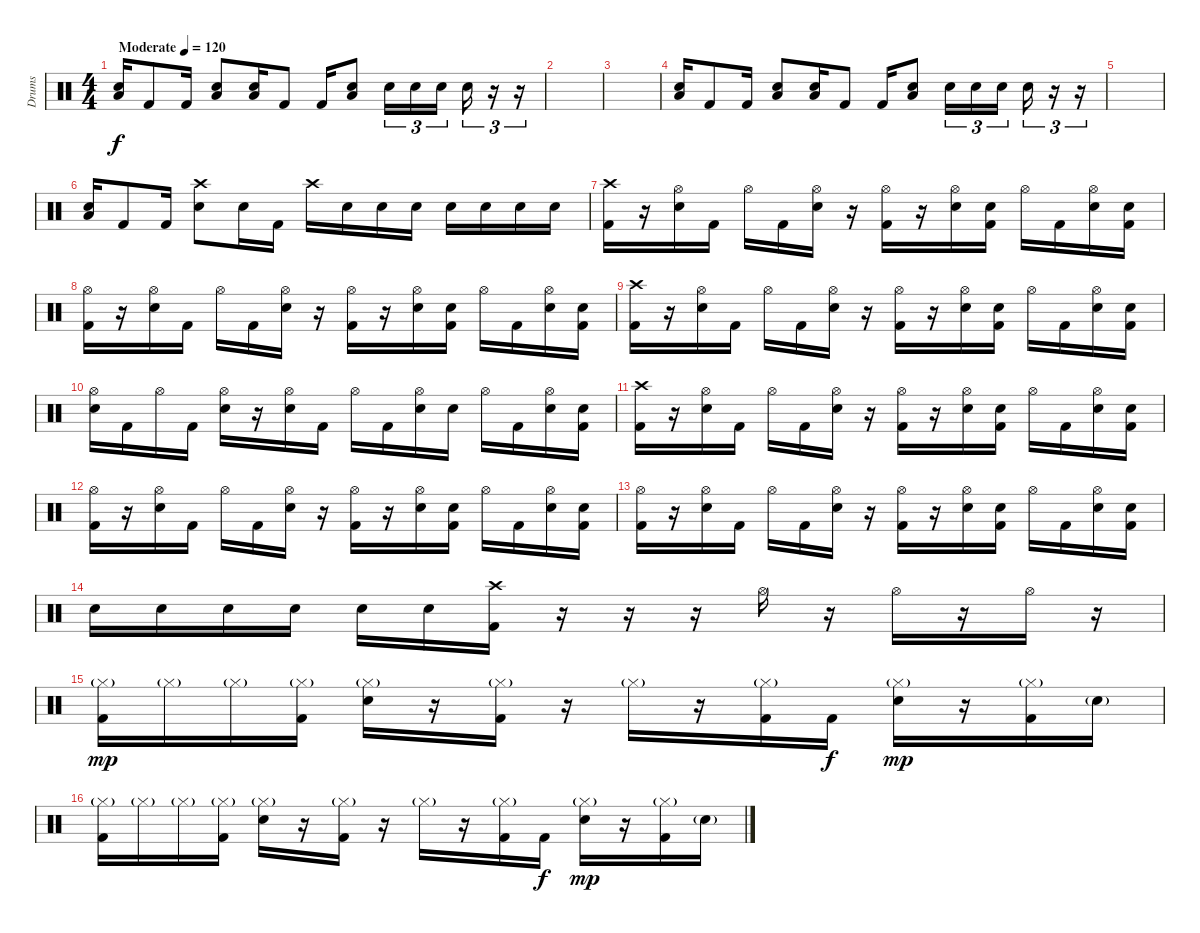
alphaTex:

\track ("Drums" "Drums") {instrument percussion}
\staff {score}
\articulation defaults
\ts (4 4)
\tempo (120 "Moderate")
\clef neutral
\ks c
("Electric Snare (hit)" "Low Tom (hit)").16{dy f} "Kick (hit) 2".8 "Kick (hit) 2".16 ("Low Floor Tom (hit)" "Electric Snare (hit)").8 ("Low Floor Tom (hit)" "Electric Snare (hit)").16 "Kick (hit) 2".8 "Kick (hit) 2".16 ("Low Floor Tom (hit)" "Electric Snare (hit)").8 "Electric Snare (hit)".16{tu (3 2)} "Electric Snare (hit)".16{tu (3 2)} "Electric Snare (hit)".16{tu (3 2) beam splitsecondary} "Electric Snare (hit)".16{tu (3 2)} r.16{tu (3 2)} r.16{tu (3 2)} |
|
|
("Electric Snare (hit)" "Low Tom (hit)").16 "Kick (hit) 2".8 "Kick (hit) 2".16 ("Low Floor Tom (hit)" "Electric Snare (hit)").8 ("Low Floor Tom (hit)" "Electric Snare (hit)").16 "Kick (hit) 2".8 "Kick (hit) 2".16 ("Low Floor Tom (hit)" "Electric Snare (hit)").8 "Electric Snare (hit)".16{tu (3 2)} "Electric Snare (hit)".16{tu (3 2)} "Electric Snare (hit)".16{tu (3 2) beam splitsecondary} "Electric Snare (hit)".16{tu (3 2)} r.16{tu (3 2)} r.16{tu (3 2)} |
|
("Electric Snare (hit)" "Low Tom (hit)").16 "Kick (hit) 2".8 "Kick (hit) 2".16 ("Crash high (hit)" "Electric Snare (hit)").8 "Electric Snare (hit)".16 "Kick (hit) 2".16 "Crash high (hit)".16 "Electric Snare (hit)".16 "Electric Snare (hit)".16 "Electric Snare (hit)".16 "Electric Snare (hit)".16 "Electric Snare (hit)".16 "Electric Snare (hit)".16 "Electric Snare (hit)".16 |
("Crash high (hit)" "Kick (hit) 2").16 r.16 ("Hi-Hat (open)" "Electric Snare (hit)").16 "Kick (hit) 2".16 "Hi-Hat (open)".16 "Kick (hit) 2".16 ("Hi-Hat (open)" "Electric Snare (hit)").16 r.16 ("Hi-Hat (open)" "Kick (hit) 2").16 r.16 ("Hi-Hat (open)" "Electric Snare (hit)").16 ("Electric Snare (hit)" "Kick (hit) 2").16 "Hi-Hat (open)".16 "Kick (hit) 2".16 ("Hi-Hat (open)" "Electric Snare (hit)").16 ("Electric Snare (hit)" "Kick (hit) 2").16 |
("Hi-Hat (open)" "Kick (hit) 2").16 r.16 ("Hi-Hat (open)" "Electric Snare (hit)").16 "Kick (hit) 2".16 "Hi-Hat (open)".16 "Kick (hit) 2".16 ("Hi-Hat (open)" "Electric Snare (hit)").16 r.16 ("Hi-Hat (open)" "Kick (hit) 2").16 r.16 ("Hi-Hat (open)" "Electric Snare (hit)").16 ("Electric Snare (hit)" "Kick (hit) 2").16 "Hi-Hat (open)".16 "Kick (hit) 2".16 ("Hi-Hat (open)" "Electric Snare (hit)").16 ("Electric Snare (hit)" "Kick (hit) 2").16 |
("Crash high (hit)" "Kick (hit) 2").16 r.16 ("Hi-Hat (open)" "Electric Snare (hit)").16 "Kick (hit) 2".16 "Hi-Hat (open)".16 "Kick (hit) 2".16 ("Hi-Hat (open)" "Electric Snare (hit)").16 r.16 ("Hi-Hat (open)" "Kick (hit) 2").16 r.16 ("Hi-Hat (open)" "Electric Snare (hit)").16 ("Electric Snare (hit)" "Kick (hit) 2").16 "Hi-Hat (open)".16 "Kick (hit) 2".16 ("Hi-Hat (open)" "Electric Snare (hit)").16 ("Electric Snare (hit)" "Kick (hit) 2").16 |
("Hi-Hat (open)" "Electric Snare (hit)").16 "Kick (hit) 2".16 "Hi-Hat (open)".16 "Kick (hit) 2".16 ("Hi-Hat (open)" "Electric Snare (hit)").16 r.16 ("Hi-Hat (open)" "Electric Snare (hit)").16 "Kick (hit) 2".16 "Hi-Hat (open)".16 "Kick (hit) 2".16 ("Hi-Hat (open)" "Electric Snare (hit)").16 "Electric Snare (hit)".16 "Hi-Hat (open)".16 "Kick (hit) 2".16 ("Hi-Hat (open)" "Electric Snare (hit)").16 ("Electric Snare (hit)" "Kick (hit) 2").16 |
("Crash high (hit)" "Kick (hit) 2").16 r.16 ("Hi-Hat (open)" "Electric Snare (hit)").16 "Kick (hit) 2".16 "Hi-Hat (open)".16 "Kick (hit) 2".16 ("Hi-Hat (open)" "Electric Snare (hit)").16 r.16 ("Hi-Hat (open)" "Kick (hit) 2").16 r.16 ("Hi-Hat (open)" "Electric Snare (hit)").16 ("Electric Snare (hit)" "Kick (hit) 2").16 "Hi-Hat (open)".16 "Kick (hit) 2".16 ("Hi-Hat (open)" "Electric Snare (hit)").16 ("Electric Snare (hit)" "Kick (hit) 2").16 |
("Hi-Hat (open)" "Kick (hit) 2").16 r.16 ("Hi-Hat (open)" "Electric Snare (hit)").16 "Kick (hit) 2".16 "Hi-Hat (open)".16 "Kick (hit) 2".16 ("Hi-Hat (open)" "Electric Snare (hit)").16 r.16 ("Hi-Hat (open)" "Kick (hit) 2").16 r.16 ("Hi-Hat (open)" "Electric Snare (hit)").16 ("Electric Snare (hit)" "Kick (hit) 2").16 "Hi-Hat (open)".16 "Kick (hit) 2".16 ("Hi-Hat (open)" "Electric Snare (hit)").16 ("Electric Snare (hit)" "Kick (hit) 2").16 |
("Hi-Hat (open)" "Kick (hit) 2").16 r.16 ("Hi-Hat (open)" "Electric Snare (hit)").16 "Kick (hit) 2".16 "Hi-Hat (open)".16 "Kick (hit) 2".16 ("Hi-Hat (open)" "Electric Snare (hit)").16 r.16 ("Hi-Hat (open)" "Kick (hit) 2").16 r.16 ("Hi-Hat (open)" "Electric Snare (hit)").16 ("Electric Snare (hit)" "Kick (hit) 2").16 "Hi-Hat (open)".16 "Kick (hit) 2".16 ("Hi-Hat (open)" "Electric Snare (hit)").16 ("Electric Snare (hit)" "Kick (hit) 2").16 |
"Electric Snare (hit)".16 "Electric Snare (hit)".16 "Electric Snare (hit)".16 "Electric Snare (hit)".16 "Electric Snare (hit)".16 "Electric Snare (hit)".16 ("Crash high (hit)" "Kick (hit) 2").16 r.16 r.16 r.16 "Hi-Hat (open)".16 r.16 "Hi-Hat (open)".16 r.16 "Hi-Hat (open)".16 r.16 |
("Hi-Hat (closed)"{g} "Kick (hit) 2").16{dy mp} "Hi-Hat (closed)"{g}.16 "Hi-Hat (closed)"{g}.16 ("Hi-Hat (closed)"{g} "Kick (hit) 2").16 ("Hi-Hat (closed)"{g} "Electric Snare (hit)").16 r.16 ("Hi-Hat (closed)"{g} "Kick (hit) 2").16 r.16 "Hi-Hat (closed)"{g}.16 r.16 ("Hi-Hat (closed)"{g} "Kick (hit) 2").16 "Kick (hit) 2".16{dy f} ("Hi-Hat (closed)"{g} "Electric Snare (hit)").16{dy mp} r.16 ("Hi-Hat (closed)"{g} "Kick (hit) 2").16 "Electric Snare (hit)"{g}.16 |
("Hi-Hat (closed)"{g} "Kick (hit) 2").16 "Hi-Hat (closed)"{g}.16 "Hi-Hat (closed)"{g}.16 ("Hi-Hat (closed)"{g} "Kick (hit) 2").16 ("Hi-Hat (closed)"{g} "Electric Snare (hit)").16 r.16 ("Hi-Hat (closed)"{g} "Kick (hit) 2").16 r.16 "Hi-Hat (closed)"{g}.16 r.16 ("Hi-Hat (closed)"{g} "Kick (hit) 2").16 "Kick (hit) 2".16{dy f} ("Hi-Hat (closed)"{g} "Electric Snare (hit)").16{dy mp} r.16 ("Hi-Hat (closed)"{g} "Kick (hit) 2").16 "Electric Snare (hit)"{g}.16
